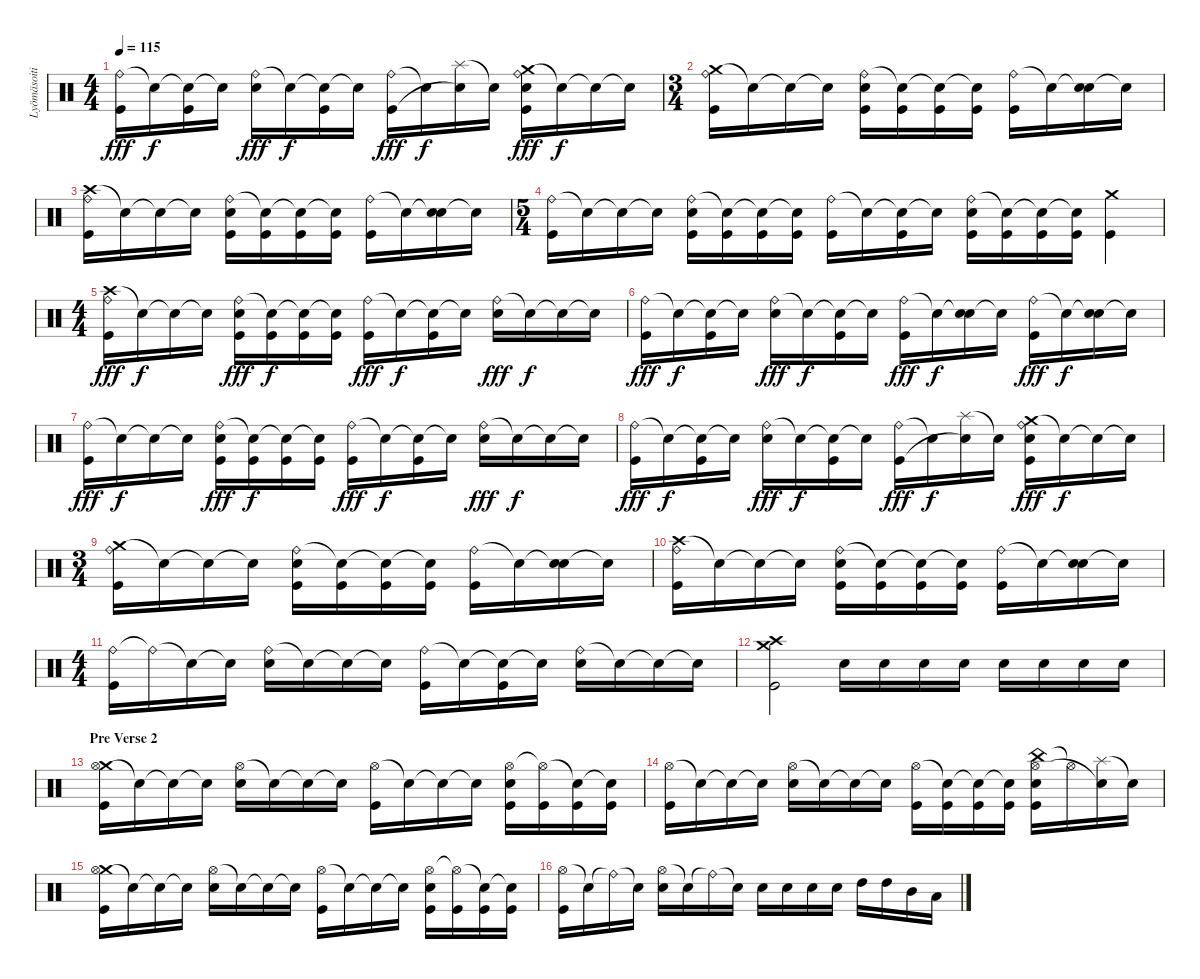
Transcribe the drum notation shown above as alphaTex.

\track ("Lyömäsoitin" "Lyömäsoiti") {instrument percussion}
\staff {score}
\articulation defaults
\ts (4 4)
\tempo 115
\clef neutral
\ks c
("Ride (bell)" "Kick (hit)").16{dy fff} "Snare (hit)"{t}.16{dy f} ("Snare (hit)"{t} "Kick (hit)").16 "Snare (hit)"{t}.16 ("Ride (bell)" "Snare (hit) 2").16{dy fff} "Snare (hit)"{t}.16{dy f} ("Snare (hit)"{t} "Kick (hit)").16 "Snare (hit)"{t}.16 ("Ride (bell)" "Kick (hit)").16{dy fff} "Snare (hit)"{t}.16{dy f} ("Splash (hit)" "Snare (hit)"{t}).16 "Snare (hit)"{t}.16 ("Crash medium (hit)" "Ride (bell)" "Snare (hit) 2" "Kick (hit)").16{dy fff} "Snare (hit)"{t}.16{dy f} "Snare (hit)"{t}.16 "Snare (hit)"{t}.16 |
\ts (3 4)
("Crash medium (hit)" "Ride (bell)" "Kick (hit)").16 "Snare (hit)"{t}.16 "Snare (hit)"{t}.16 "Snare (hit)"{t}.16 ("Ride (bell)" "Snare (hit) 2" "Kick (hit)").16 ("Snare (hit)"{t} "Kick (hit)").16 ("Snare (hit)"{t} "Kick (hit)").16 ("Snare (hit)"{t} "Kick (hit)").16 ("Ride (bell)" "Kick (hit)").16 "Snare (hit)"{t}.16 ("Snare (hit)"{t} "Snare (hit) 2").16 "Snare (hit)"{t}.16 |
("Crash high (hit)" "Ride (bell)" "Kick (hit)").16 "Snare (hit)"{t}.16 "Snare (hit)"{t}.16 "Snare (hit)"{t}.16 ("Ride (bell)" "Snare (hit) 2" "Kick (hit)").16 ("Snare (hit)"{t} "Kick (hit)").16 ("Snare (hit)"{t} "Kick (hit)").16 ("Snare (hit)"{t} "Kick (hit)").16 ("Ride (bell)" "Kick (hit)").16 "Snare (hit)"{t}.16 ("Snare (hit)"{t} "Snare (hit) 2").16 "Snare (hit)"{t}.16 |
\ts (5 4)
("Ride (bell)" "Kick (hit)").16 "Snare (hit)"{t}.16 "Snare (hit)"{t}.16 "Snare (hit)"{t}.16 ("Ride (bell)" "Snare (hit) 2" "Kick (hit)").16 ("Snare (hit)"{t} "Kick (hit)").16 ("Snare (hit)"{t} "Kick (hit)").16 ("Snare (hit)"{t} "Kick (hit)").16 ("Ride (bell)" "Kick (hit)").16 "Snare (hit)"{t}.16 ("Snare (hit)"{t} "Kick (hit)").16 "Snare (hit)"{t}.16 ("Ride (bell)" "Snare (hit) 2" "Kick (hit)").16 ("Snare (hit)"{t} "Kick (hit)").16 ("Snare (hit)"{t} "Kick (hit)").16 ("Snare (hit)"{t} "Kick (hit)").16 ("Crash medium (hit)" "Kick (hit)").4 |
\ts (4 4)
("Crash high (hit)" "Ride (bell)" "Kick (hit)").16{dy fff} "Snare (hit)"{t}.16{dy f} "Snare (hit)"{t}.16 "Snare (hit)"{t}.16 ("Ride (bell)" "Snare (hit) 2" "Kick (hit)").16{dy fff} ("Snare (hit)"{t} "Kick (hit)").16{dy f} ("Snare (hit)"{t} "Kick (hit)").16 ("Snare (hit)"{t} "Kick (hit)").16 ("Ride (bell)" "Kick (hit)").16{dy fff} "Snare (hit)"{t}.16{dy f} ("Snare (hit)"{t} "Kick (hit)").16 "Snare (hit)"{t}.16 ("Ride (bell)" "Snare (hit) 2").16{dy fff} "Snare (hit)"{t}.16{dy f} "Snare (hit)"{t}.16 "Snare (hit)"{t}.16 |
("Ride (bell)" "Kick (hit)").16{dy fff} "Snare (hit)"{t}.16{dy f} ("Snare (hit)"{t} "Kick (hit)").16 "Snare (hit)"{t}.16 ("Ride (bell)" "Snare (hit) 2").16{dy fff} "Snare (hit)"{t}.16{dy f} ("Snare (hit)"{t} "Kick (hit)").16 "Snare (hit)"{t}.16 ("Ride (bell)" "Kick (hit)").16{dy fff} "Snare (hit)"{t}.16{dy f} ("Snare (hit)"{t} "Snare (hit) 2").16 "Snare (hit)"{t}.16 ("Ride (bell)" "Kick (hit)").16{dy fff} "Snare (hit)"{t}.16{dy f} ("Snare (hit)"{t} "Snare (hit) 2").16 "Snare (hit)"{t}.16 |
("Ride (bell)" "Kick (hit)").16{dy fff} "Snare (hit)"{t}.16{dy f} "Snare (hit)"{t}.16 "Snare (hit)"{t}.16 ("Ride (bell)" "Snare (hit) 2" "Kick (hit)").16{dy fff} ("Snare (hit)"{t} "Kick (hit)").16{dy f} ("Snare (hit)"{t} "Kick (hit)").16 ("Snare (hit)"{t} "Kick (hit)").16 ("Ride (bell)" "Kick (hit)").16{dy fff} "Snare (hit)"{t}.16{dy f} ("Snare (hit)"{t} "Kick (hit)").16 "Snare (hit)"{t}.16 ("Ride (bell)" "Snare (hit) 2").16{dy fff} "Snare (hit)"{t}.16{dy f} "Snare (hit)"{t}.16 "Snare (hit)"{t}.16 |
("Ride (bell)" "Kick (hit)").16{dy fff} "Snare (hit)"{t}.16{dy f} ("Snare (hit)"{t} "Kick (hit)").16 "Snare (hit)"{t}.16 ("Ride (bell)" "Snare (hit) 2").16{dy fff} "Snare (hit)"{t}.16{dy f} ("Snare (hit)"{t} "Kick (hit)").16 "Snare (hit)"{t}.16 ("Ride (bell)" "Kick (hit)").16{dy fff} "Snare (hit)"{t}.16{dy f} ("Splash (hit)" "Snare (hit)"{t}).16 "Snare (hit)"{t}.16 ("Crash medium (hit)" "Ride (bell)" "Snare (hit) 2" "Kick (hit)").16{dy fff} "Snare (hit)"{t}.16{dy f} "Snare (hit)"{t}.16 "Snare (hit)"{t}.16 |
\ts (3 4)
("Crash medium (hit)" "Ride (bell)" "Kick (hit)").16 "Snare (hit)"{t}.16 "Snare (hit)"{t}.16 "Snare (hit)"{t}.16 ("Ride (bell)" "Snare (hit) 2" "Kick (hit)").16 ("Snare (hit)"{t} "Kick (hit)").16 ("Snare (hit)"{t} "Kick (hit)").16 ("Snare (hit)"{t} "Kick (hit)").16 ("Ride (bell)" "Kick (hit)").16 "Snare (hit)"{t}.16 ("Snare (hit)"{t} "Snare (hit) 2").16 "Snare (hit)"{t}.16 |
("Crash high (hit)" "Ride (bell)" "Kick (hit)").16 "Snare (hit)"{t}.16 "Snare (hit)"{t}.16 "Snare (hit)"{t}.16 ("Ride (bell)" "Snare (hit) 2" "Kick (hit)").16 ("Snare (hit)"{t} "Kick (hit)").16 ("Snare (hit)"{t} "Kick (hit)").16 ("Snare (hit)"{t} "Kick (hit)").16 ("Ride (bell)" "Kick (hit)").16 "Snare (hit)"{t}.16 ("Snare (hit)"{t} "Snare (hit) 2").16 "Snare (hit)"{t}.16 |
\ts (4 4)
("Ride (bell)" "Kick (hit)").16 "Ride (bell)"{t}.16 "Snare (hit)"{t}.16 "Snare (hit)"{t}.16 ("Ride (bell)" "Snare (hit) 2").16 "Snare (hit)"{t}.16 "Snare (hit)"{t}.16 "Snare (hit)"{t}.16 ("Ride (bell)" "Kick (hit)").16 "Snare (hit)"{t}.16 ("Snare (hit)"{t} "Kick (hit)").16 "Snare (hit)"{t}.16 ("Ride (bell)" "Snare (hit) 2").16 "Snare (hit)"{t}.16 "Snare (hit)"{t}.16 "Snare (hit)"{t}.16 |
("Crash medium (hit)" "Crash high (hit)" "Kick (hit)").2 "Snare (hit) 2".16 "Snare (hit) 2".16 "Snare (hit) 2".16 "Snare (hit) 2".16 "Snare (hit) 2".16 "Snare (hit) 2".16 "Snare (hit) 2".16 "Snare (hit) 2".16 |
\section ("" "Pre Verse 2")
("Crash medium (hit)" "Hi-Hat (open)" "Kick (hit)").16 "Snare (hit)"{t}.16 "Snare (hit)"{t}.16 "Snare (hit)"{t}.16 ("Hi-Hat (open)" "Snare (hit) 2").16 "Snare (hit)"{t}.16 "Snare (hit)"{t}.16 "Snare (hit)"{t}.16 ("Hi-Hat (open)" "Kick (hit)").16 "Snare (hit)"{t}.16 "Snare (hit)"{t}.16 "Snare (hit)"{t}.16 ("Hi-Hat (open)" "Snare (hit) 2" "Kick (hit)").16 ("Hi-Hat (open)"{t} "Kick (hit)").16 ("Snare (hit)"{t} "Kick (hit)").16 ("Snare (hit)"{t} "Kick (hit)").16 |
("Hi-Hat (open)" "Kick (hit)").16 "Snare (hit)"{t}.16 "Snare (hit)"{t}.16 "Snare (hit)"{t}.16 ("Hi-Hat (open)" "Snare (hit) 2").16 "Snare (hit)"{t}.16 "Snare (hit)"{t}.16 "Snare (hit)"{t}.16 ("Hi-Hat (open)" "Kick (hit)").16 ("Snare (hit)"{t} "Kick (hit)").16 ("Snare (hit)"{t} "Kick (hit)").16 ("Snare (hit)"{t} "Kick (hit)").16 ("China (hit)" "Hi-Hat (open)" "Snare (hit) 2" "Kick (hit)").16 "Hi-Hat (open)"{t}.16 ("Splash (hit)" "Snare (hit)"{t}).16 "Snare (hit)"{t}.16 |
("Crash medium (hit)" "Hi-Hat (open)" "Kick (hit)").16 "Snare (hit)"{t}.16 "Snare (hit)"{t}.16 "Snare (hit)"{t}.16 ("Hi-Hat (open)" "Snare (hit) 2").16 "Snare (hit)"{t}.16 "Snare (hit)"{t}.16 "Snare (hit)"{t}.16 ("Hi-Hat (open)" "Kick (hit)").16 "Snare (hit)"{t}.16 "Snare (hit)"{t}.16 "Snare (hit)"{t}.16 ("Hi-Hat (open)" "Snare (hit) 2" "Kick (hit)").16 ("Hi-Hat (open)"{t} "Kick (hit)").16 ("Snare (hit)"{t} "Kick (hit)").16 ("Snare (hit)"{t} "Kick (hit)").16 |
("Hi-Hat (open)" "Kick (hit)").16 "Snare (hit)"{t}.16 "Ride (bell)"{t}.16 "Snare (hit)"{t}.16 ("Hi-Hat (open)" "Snare (hit) 2").16 "Snare (hit)"{t}.16 "Ride (bell)"{t}.16 "Snare (hit)"{t}.16 "Snare (hit) 2".16 "Snare (hit) 2".16 "Snare (hit) 2".16 "Snare (hit) 2".16 "High Tom (hit)".16 "High Tom (hit)".16 "Mid Tom (hit)".16 "Low Tom (hit)".16
